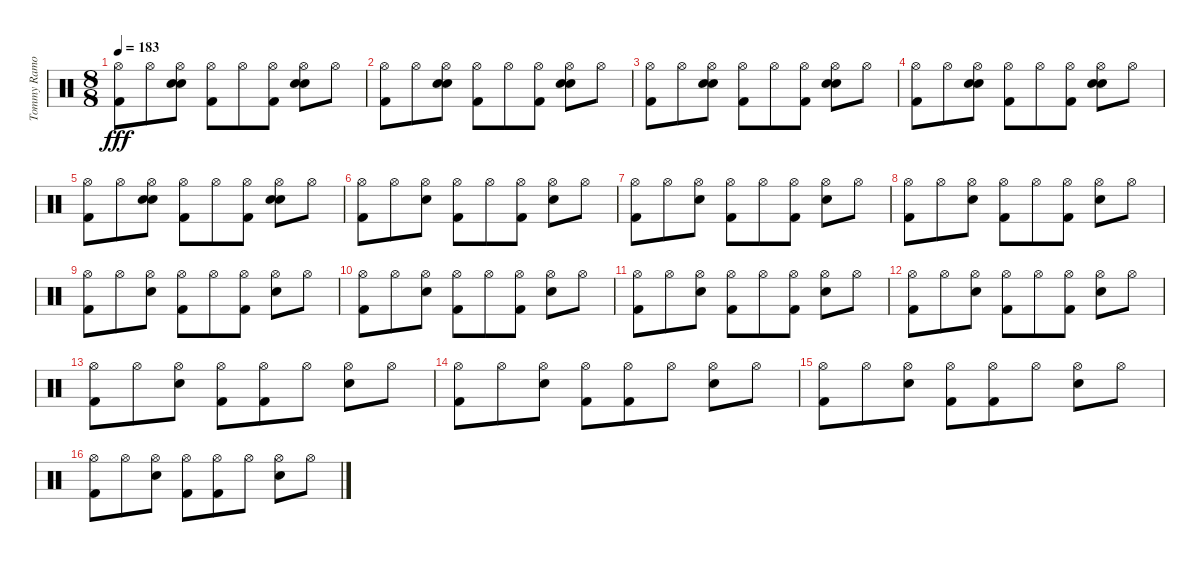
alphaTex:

\track ("Tommy Ramone - Drums" "Tommy Ramo") {instrument percussion}
\staff {score}
\articulation defaults
\ts (8 8)
\tempo 183
\clef neutral
\ks c
("Kick (hit) 2" "Hi-Hat (open)").8{dy fff} "Hi-Hat (open)".8 ("Hand Clap (hit)" "Snare (hit) 2" "Hi-Hat (open)").8 ("Kick (hit) 2" "Hi-Hat (open)").8 "Hi-Hat (open)".8 ("Kick (hit) 2" "Hi-Hat (open)").8 ("Hand Clap (hit)" "Snare (hit) 2" "Hi-Hat (open)").8 "Hi-Hat (open)".8 |
("Kick (hit) 2" "Hi-Hat (open)").8 "Hi-Hat (open)".8 ("Hand Clap (hit)" "Snare (hit) 2" "Hi-Hat (open)").8 ("Kick (hit) 2" "Hi-Hat (open)").8 "Hi-Hat (open)".8 ("Kick (hit) 2" "Hi-Hat (open)").8 ("Hand Clap (hit)" "Snare (hit) 2" "Hi-Hat (open)").8 "Hi-Hat (open)".8 |
("Kick (hit) 2" "Hi-Hat (open)").8 "Hi-Hat (open)".8 ("Hand Clap (hit)" "Snare (hit) 2" "Hi-Hat (open)").8 ("Kick (hit) 2" "Hi-Hat (open)").8 "Hi-Hat (open)".8 ("Kick (hit) 2" "Hi-Hat (open)").8 ("Hand Clap (hit)" "Snare (hit) 2" "Hi-Hat (open)").8 "Hi-Hat (open)".8 |
("Kick (hit) 2" "Hi-Hat (open)").8 "Hi-Hat (open)".8 ("Hand Clap (hit)" "Snare (hit) 2" "Hi-Hat (open)").8 ("Kick (hit) 2" "Hi-Hat (open)").8 "Hi-Hat (open)".8 ("Kick (hit) 2" "Hi-Hat (open)").8 ("Hand Clap (hit)" "Snare (hit) 2" "Hi-Hat (open)").8 "Hi-Hat (open)".8 |
("Kick (hit) 2" "Hi-Hat (open)").8 "Hi-Hat (open)".8 ("Hand Clap (hit)" "Snare (hit) 2" "Hi-Hat (open)").8 ("Kick (hit) 2" "Hi-Hat (open)").8 "Hi-Hat (open)".8 ("Kick (hit) 2" "Hi-Hat (open)").8 ("Hand Clap (hit)" "Snare (hit) 2" "Hi-Hat (open)").8 "Hi-Hat (open)".8 |
("Kick (hit) 2" "Hi-Hat (open)").8 "Hi-Hat (open)".8 ("Snare (hit) 2" "Hi-Hat (open)").8 ("Kick (hit) 2" "Hi-Hat (open)").8 "Hi-Hat (open)".8 ("Kick (hit) 2" "Hi-Hat (open)").8 ("Snare (hit) 2" "Hi-Hat (open)").8 "Hi-Hat (open)".8 |
("Kick (hit) 2" "Hi-Hat (open)").8 "Hi-Hat (open)".8 ("Snare (hit) 2" "Hi-Hat (open)").8 ("Kick (hit) 2" "Hi-Hat (open)").8 "Hi-Hat (open)".8 ("Kick (hit) 2" "Hi-Hat (open)").8 ("Snare (hit) 2" "Hi-Hat (open)").8 "Hi-Hat (open)".8 |
("Kick (hit) 2" "Hi-Hat (open)").8 "Hi-Hat (open)".8 ("Snare (hit) 2" "Hi-Hat (open)").8 ("Kick (hit) 2" "Hi-Hat (open)").8 "Hi-Hat (open)".8 ("Kick (hit) 2" "Hi-Hat (open)").8 ("Snare (hit) 2" "Hi-Hat (open)").8 "Hi-Hat (open)".8 |
("Kick (hit) 2" "Hi-Hat (open)").8 "Hi-Hat (open)".8 ("Snare (hit) 2" "Hi-Hat (open)").8 ("Kick (hit) 2" "Hi-Hat (open)").8 "Hi-Hat (open)".8 ("Kick (hit) 2" "Hi-Hat (open)").8 ("Snare (hit) 2" "Hi-Hat (open)").8 "Hi-Hat (open)".8 |
("Kick (hit) 2" "Hi-Hat (open)").8 "Hi-Hat (open)".8 ("Snare (hit) 2" "Hi-Hat (open)").8 ("Kick (hit) 2" "Hi-Hat (open)").8 "Hi-Hat (open)".8 ("Kick (hit) 2" "Hi-Hat (open)").8 ("Snare (hit) 2" "Hi-Hat (open)").8 "Hi-Hat (open)".8 |
("Kick (hit) 2" "Hi-Hat (open)").8 "Hi-Hat (open)".8 ("Snare (hit) 2" "Hi-Hat (open)").8 ("Kick (hit) 2" "Hi-Hat (open)").8 "Hi-Hat (open)".8 ("Kick (hit) 2" "Hi-Hat (open)").8 ("Snare (hit) 2" "Hi-Hat (open)").8 "Hi-Hat (open)".8 |
("Kick (hit) 2" "Hi-Hat (open)").8 "Hi-Hat (open)".8 ("Snare (hit) 2" "Hi-Hat (open)").8 ("Kick (hit) 2" "Hi-Hat (open)").8 "Hi-Hat (open)".8 ("Kick (hit) 2" "Hi-Hat (open)").8 ("Snare (hit) 2" "Hi-Hat (open)").8 "Hi-Hat (open)".8 |
("Kick (hit) 2" "Hi-Hat (open)").8 "Hi-Hat (open)".8 ("Snare (hit) 2" "Hi-Hat (open)").8 ("Kick (hit) 2" "Hi-Hat (open)").8 ("Kick (hit) 2" "Hi-Hat (open)").8 "Hi-Hat (open)".8 ("Snare (hit) 2" "Hi-Hat (open)").8 "Hi-Hat (open)".8 |
("Kick (hit) 2" "Hi-Hat (open)").8 "Hi-Hat (open)".8 ("Snare (hit) 2" "Hi-Hat (open)").8 ("Kick (hit) 2" "Hi-Hat (open)").8 ("Kick (hit) 2" "Hi-Hat (open)").8 "Hi-Hat (open)".8 ("Snare (hit) 2" "Hi-Hat (open)").8 "Hi-Hat (open)".8 |
("Kick (hit) 2" "Hi-Hat (open)").8 "Hi-Hat (open)".8 ("Snare (hit) 2" "Hi-Hat (open)").8 ("Kick (hit) 2" "Hi-Hat (open)").8 ("Kick (hit) 2" "Hi-Hat (open)").8 "Hi-Hat (open)".8 ("Snare (hit) 2" "Hi-Hat (open)").8 "Hi-Hat (open)".8 |
("Kick (hit) 2" "Hi-Hat (open)").8 "Hi-Hat (open)".8 ("Snare (hit) 2" "Hi-Hat (open)").8 ("Kick (hit) 2" "Hi-Hat (open)").8 ("Kick (hit) 2" "Hi-Hat (open)").8 "Hi-Hat (open)".8 ("Snare (hit) 2" "Hi-Hat (open)").8 "Hi-Hat (open)".8
